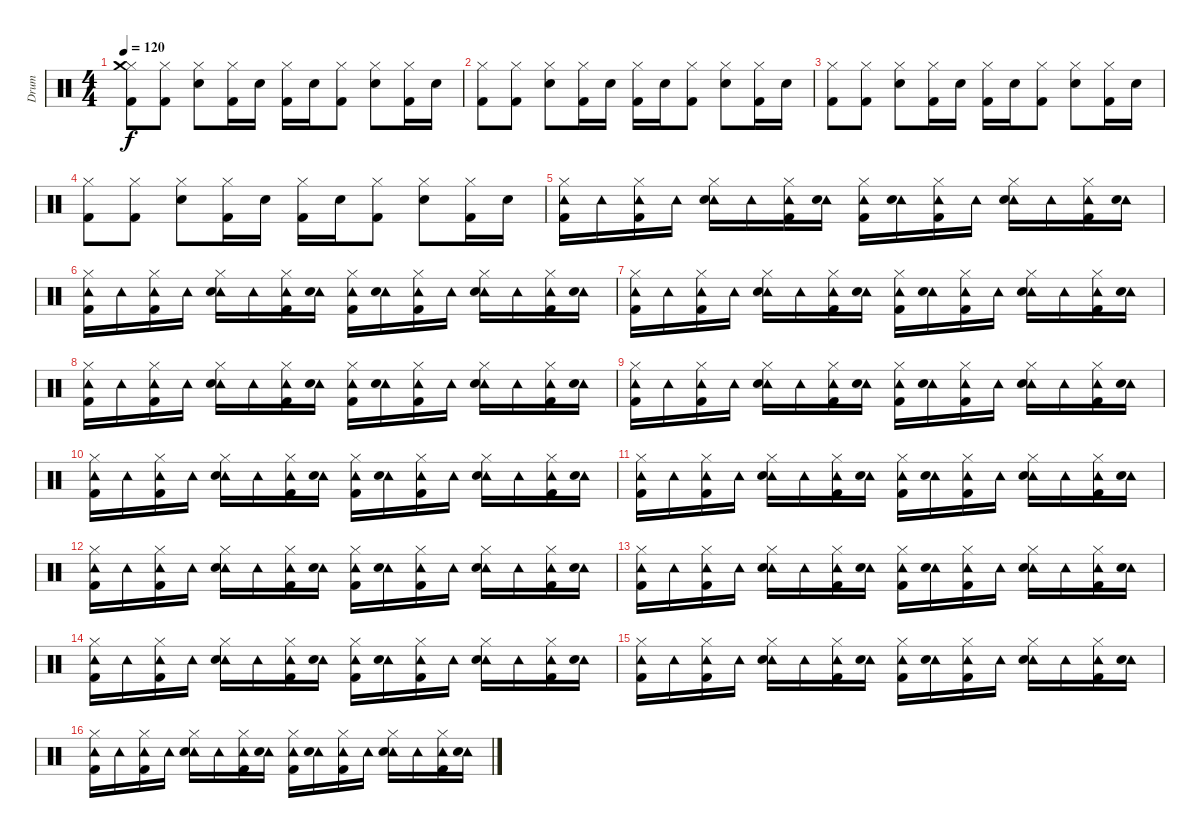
\track ("Drum" "Drum") {instrument percussion}
\staff {score}
\articulation defaults
\ts (4 4)
\tempo 120
\clef neutral
\ks c
("Hi-Hat (closed)" "Crash medium (hit)" "Kick (hit) 2").8{dy f} ("Hi-Hat (closed)" "Kick (hit) 2").8 ("Hi-Hat (closed)" "Electric Snare (hit)").8 ("Hi-Hat (closed)" "Kick (hit) 2").16 "Electric Snare (hit)".16 ("Hi-Hat (closed)" "Kick (hit) 2").16 "Electric Snare (hit)".16 ("Hi-Hat (closed)" "Kick (hit) 2").8 ("Hi-Hat (closed)" "Electric Snare (hit)").8 ("Hi-Hat (closed)" "Kick (hit) 2").16 "Electric Snare (hit)".16 |
("Hi-Hat (closed)" "Kick (hit) 2").8 ("Hi-Hat (closed)" "Kick (hit) 2").8 ("Hi-Hat (closed)" "Electric Snare (hit)").8 ("Hi-Hat (closed)" "Kick (hit) 2").16 "Electric Snare (hit)".16 ("Hi-Hat (closed)" "Kick (hit) 2").16 "Electric Snare (hit)".16 ("Hi-Hat (closed)" "Kick (hit) 2").8 ("Hi-Hat (closed)" "Electric Snare (hit)").8 ("Hi-Hat (closed)" "Kick (hit) 2").16 "Electric Snare (hit)".16 |
("Hi-Hat (closed)" "Kick (hit) 2").8 ("Hi-Hat (closed)" "Kick (hit) 2").8 ("Hi-Hat (closed)" "Electric Snare (hit)").8 ("Hi-Hat (closed)" "Kick (hit) 2").16 "Electric Snare (hit)".16 ("Hi-Hat (closed)" "Kick (hit) 2").16 "Electric Snare (hit)".16 ("Hi-Hat (closed)" "Kick (hit) 2").8 ("Hi-Hat (closed)" "Electric Snare (hit)").8 ("Hi-Hat (closed)" "Kick (hit) 2").16 "Electric Snare (hit)".16 |
("Hi-Hat (closed)" "Kick (hit) 2").8 ("Hi-Hat (closed)" "Kick (hit) 2").8 ("Hi-Hat (closed)" "Electric Snare (hit)").8 ("Hi-Hat (closed)" "Kick (hit) 2").16 "Electric Snare (hit)".16 ("Hi-Hat (closed)" "Kick (hit) 2").16 "Electric Snare (hit)".16 ("Hi-Hat (closed)" "Kick (hit) 2").8 ("Hi-Hat (closed)" "Electric Snare (hit)").8 ("Hi-Hat (closed)" "Kick (hit) 2").16 "Electric Snare (hit)".16 |
("Hi-Hat (closed)" "Tambourine (hit)" "Kick (hit) 2").16 "Tambourine (hit)".16 ("Hi-Hat (closed)" "Tambourine (hit)" "Kick (hit) 2").16 "Tambourine (hit)".16 ("Hi-Hat (closed)" "Tambourine (hit)" "Electric Snare (hit)").16 "Tambourine (hit)".16 ("Hi-Hat (closed)" "Tambourine (hit)" "Kick (hit) 2").16 ("Tambourine (hit)" "Electric Snare (hit)").16 ("Hi-Hat (closed)" "Tambourine (hit)" "Kick (hit) 2").16 ("Tambourine (hit)" "Electric Snare (hit)").16 ("Hi-Hat (closed)" "Tambourine (hit)" "Kick (hit) 2").16 "Tambourine (hit)".16 ("Hi-Hat (closed)" "Tambourine (hit)" "Electric Snare (hit)").16 "Tambourine (hit)".16 ("Hi-Hat (closed)" "Tambourine (hit)" "Kick (hit) 2").16 ("Tambourine (hit)" "Electric Snare (hit)").16 |
("Hi-Hat (closed)" "Tambourine (hit)" "Kick (hit) 2").16 "Tambourine (hit)".16 ("Hi-Hat (closed)" "Tambourine (hit)" "Kick (hit) 2").16 "Tambourine (hit)".16 ("Hi-Hat (closed)" "Tambourine (hit)" "Electric Snare (hit)").16 "Tambourine (hit)".16 ("Hi-Hat (closed)" "Tambourine (hit)" "Kick (hit) 2").16 ("Tambourine (hit)" "Electric Snare (hit)").16 ("Hi-Hat (closed)" "Tambourine (hit)" "Kick (hit) 2").16 ("Tambourine (hit)" "Electric Snare (hit)").16 ("Hi-Hat (closed)" "Tambourine (hit)" "Kick (hit) 2").16 "Tambourine (hit)".16 ("Hi-Hat (closed)" "Tambourine (hit)" "Electric Snare (hit)").16 "Tambourine (hit)".16 ("Hi-Hat (closed)" "Tambourine (hit)" "Kick (hit) 2").16 ("Tambourine (hit)" "Electric Snare (hit)").16 |
("Hi-Hat (closed)" "Tambourine (hit)" "Kick (hit) 2").16 "Tambourine (hit)".16 ("Hi-Hat (closed)" "Tambourine (hit)" "Kick (hit) 2").16 "Tambourine (hit)".16 ("Hi-Hat (closed)" "Tambourine (hit)" "Electric Snare (hit)").16 "Tambourine (hit)".16 ("Hi-Hat (closed)" "Tambourine (hit)" "Kick (hit) 2").16 ("Tambourine (hit)" "Electric Snare (hit)").16 ("Hi-Hat (closed)" "Tambourine (hit)" "Kick (hit) 2").16 ("Tambourine (hit)" "Electric Snare (hit)").16 ("Hi-Hat (closed)" "Tambourine (hit)" "Kick (hit) 2").16 "Tambourine (hit)".16 ("Hi-Hat (closed)" "Tambourine (hit)" "Electric Snare (hit)").16 "Tambourine (hit)".16 ("Hi-Hat (closed)" "Tambourine (hit)" "Kick (hit) 2").16 ("Tambourine (hit)" "Electric Snare (hit)").16 |
("Hi-Hat (closed)" "Tambourine (hit)" "Kick (hit) 2").16 "Tambourine (hit)".16 ("Hi-Hat (closed)" "Tambourine (hit)" "Kick (hit) 2").16 "Tambourine (hit)".16 ("Hi-Hat (closed)" "Tambourine (hit)" "Electric Snare (hit)").16 "Tambourine (hit)".16 ("Hi-Hat (closed)" "Tambourine (hit)" "Kick (hit) 2").16 ("Tambourine (hit)" "Electric Snare (hit)").16 ("Hi-Hat (closed)" "Tambourine (hit)" "Kick (hit) 2").16 ("Tambourine (hit)" "Electric Snare (hit)").16 ("Hi-Hat (closed)" "Tambourine (hit)" "Kick (hit) 2").16 "Tambourine (hit)".16 ("Hi-Hat (closed)" "Tambourine (hit)" "Electric Snare (hit)").16 "Tambourine (hit)".16 ("Hi-Hat (closed)" "Tambourine (hit)" "Kick (hit) 2").16 ("Tambourine (hit)" "Electric Snare (hit)").16 |
("Hi-Hat (closed)" "Tambourine (hit)" "Kick (hit) 2").16 "Tambourine (hit)".16 ("Hi-Hat (closed)" "Tambourine (hit)" "Kick (hit) 2").16 "Tambourine (hit)".16 ("Hi-Hat (closed)" "Tambourine (hit)" "Electric Snare (hit)").16 "Tambourine (hit)".16 ("Hi-Hat (closed)" "Tambourine (hit)" "Kick (hit) 2").16 ("Tambourine (hit)" "Electric Snare (hit)").16 ("Hi-Hat (closed)" "Tambourine (hit)" "Kick (hit) 2").16 ("Tambourine (hit)" "Electric Snare (hit)").16 ("Hi-Hat (closed)" "Tambourine (hit)" "Kick (hit) 2").16 "Tambourine (hit)".16 ("Hi-Hat (closed)" "Tambourine (hit)" "Electric Snare (hit)").16 "Tambourine (hit)".16 ("Hi-Hat (closed)" "Tambourine (hit)" "Kick (hit) 2").16 ("Tambourine (hit)" "Electric Snare (hit)").16 |
("Hi-Hat (closed)" "Tambourine (hit)" "Kick (hit) 2").16 "Tambourine (hit)".16 ("Hi-Hat (closed)" "Tambourine (hit)" "Kick (hit) 2").16 "Tambourine (hit)".16 ("Hi-Hat (closed)" "Tambourine (hit)" "Electric Snare (hit)").16 "Tambourine (hit)".16 ("Hi-Hat (closed)" "Tambourine (hit)" "Kick (hit) 2").16 ("Tambourine (hit)" "Electric Snare (hit)").16 ("Hi-Hat (closed)" "Tambourine (hit)" "Kick (hit) 2").16 ("Tambourine (hit)" "Electric Snare (hit)").16 ("Hi-Hat (closed)" "Tambourine (hit)" "Kick (hit) 2").16 "Tambourine (hit)".16 ("Hi-Hat (closed)" "Tambourine (hit)" "Electric Snare (hit)").16 "Tambourine (hit)".16 ("Hi-Hat (closed)" "Tambourine (hit)" "Kick (hit) 2").16 ("Tambourine (hit)" "Electric Snare (hit)").16 |
("Hi-Hat (closed)" "Tambourine (hit)" "Kick (hit) 2").16 "Tambourine (hit)".16 ("Hi-Hat (closed)" "Tambourine (hit)" "Kick (hit) 2").16 "Tambourine (hit)".16 ("Hi-Hat (closed)" "Tambourine (hit)" "Electric Snare (hit)").16 "Tambourine (hit)".16 ("Hi-Hat (closed)" "Tambourine (hit)" "Kick (hit) 2").16 ("Tambourine (hit)" "Electric Snare (hit)").16 ("Hi-Hat (closed)" "Tambourine (hit)" "Kick (hit) 2").16 ("Tambourine (hit)" "Electric Snare (hit)").16 ("Hi-Hat (closed)" "Tambourine (hit)" "Kick (hit) 2").16 "Tambourine (hit)".16 ("Hi-Hat (closed)" "Tambourine (hit)" "Electric Snare (hit)").16 "Tambourine (hit)".16 ("Hi-Hat (closed)" "Tambourine (hit)" "Kick (hit) 2").16 ("Tambourine (hit)" "Electric Snare (hit)").16 |
("Hi-Hat (closed)" "Tambourine (hit)" "Kick (hit) 2").16 "Tambourine (hit)".16 ("Hi-Hat (closed)" "Tambourine (hit)" "Kick (hit) 2").16 "Tambourine (hit)".16 ("Hi-Hat (closed)" "Tambourine (hit)" "Electric Snare (hit)").16 "Tambourine (hit)".16 ("Hi-Hat (closed)" "Tambourine (hit)" "Kick (hit) 2").16 ("Tambourine (hit)" "Electric Snare (hit)").16 ("Hi-Hat (closed)" "Tambourine (hit)" "Kick (hit) 2").16 ("Tambourine (hit)" "Electric Snare (hit)").16 ("Hi-Hat (closed)" "Tambourine (hit)" "Kick (hit) 2").16 "Tambourine (hit)".16 ("Hi-Hat (closed)" "Tambourine (hit)" "Electric Snare (hit)").16 "Tambourine (hit)".16 ("Hi-Hat (closed)" "Tambourine (hit)" "Kick (hit) 2").16 ("Tambourine (hit)" "Electric Snare (hit)").16 |
("Hi-Hat (closed)" "Tambourine (hit)" "Kick (hit) 2").16 "Tambourine (hit)".16 ("Hi-Hat (closed)" "Tambourine (hit)" "Kick (hit) 2").16 "Tambourine (hit)".16 ("Hi-Hat (closed)" "Tambourine (hit)" "Electric Snare (hit)").16 "Tambourine (hit)".16 ("Hi-Hat (closed)" "Tambourine (hit)" "Kick (hit) 2").16 ("Tambourine (hit)" "Electric Snare (hit)").16 ("Hi-Hat (closed)" "Tambourine (hit)" "Kick (hit) 2").16 ("Tambourine (hit)" "Electric Snare (hit)").16 ("Hi-Hat (closed)" "Tambourine (hit)" "Kick (hit) 2").16 "Tambourine (hit)".16 ("Hi-Hat (closed)" "Tambourine (hit)" "Electric Snare (hit)").16 "Tambourine (hit)".16 ("Hi-Hat (closed)" "Tambourine (hit)" "Kick (hit) 2").16 ("Tambourine (hit)" "Electric Snare (hit)").16 |
("Hi-Hat (closed)" "Tambourine (hit)" "Kick (hit) 2").16 "Tambourine (hit)".16 ("Hi-Hat (closed)" "Tambourine (hit)" "Kick (hit) 2").16 "Tambourine (hit)".16 ("Hi-Hat (closed)" "Tambourine (hit)" "Electric Snare (hit)").16 "Tambourine (hit)".16 ("Hi-Hat (closed)" "Tambourine (hit)" "Kick (hit) 2").16 ("Tambourine (hit)" "Electric Snare (hit)").16 ("Hi-Hat (closed)" "Tambourine (hit)" "Kick (hit) 2").16 ("Tambourine (hit)" "Electric Snare (hit)").16 ("Hi-Hat (closed)" "Tambourine (hit)" "Kick (hit) 2").16 "Tambourine (hit)".16 ("Hi-Hat (closed)" "Tambourine (hit)" "Electric Snare (hit)").16 "Tambourine (hit)".16 ("Hi-Hat (closed)" "Tambourine (hit)" "Kick (hit) 2").16 ("Tambourine (hit)" "Electric Snare (hit)").16 |
("Hi-Hat (closed)" "Tambourine (hit)" "Kick (hit) 2").16 "Tambourine (hit)".16 ("Hi-Hat (closed)" "Tambourine (hit)" "Kick (hit) 2").16 "Tambourine (hit)".16 ("Hi-Hat (closed)" "Tambourine (hit)" "Electric Snare (hit)").16 "Tambourine (hit)".16 ("Hi-Hat (closed)" "Tambourine (hit)" "Kick (hit) 2").16 ("Tambourine (hit)" "Electric Snare (hit)").16 ("Hi-Hat (closed)" "Tambourine (hit)" "Kick (hit) 2").16 ("Tambourine (hit)" "Electric Snare (hit)").16 ("Hi-Hat (closed)" "Tambourine (hit)" "Kick (hit) 2").16 "Tambourine (hit)".16 ("Hi-Hat (closed)" "Tambourine (hit)" "Electric Snare (hit)").16 "Tambourine (hit)".16 ("Hi-Hat (closed)" "Tambourine (hit)" "Kick (hit) 2").16 ("Tambourine (hit)" "Electric Snare (hit)").16 |
("Hi-Hat (closed)" "Tambourine (hit)" "Kick (hit) 2").16 "Tambourine (hit)".16 ("Hi-Hat (closed)" "Tambourine (hit)" "Kick (hit) 2").16 "Tambourine (hit)".16 ("Hi-Hat (closed)" "Tambourine (hit)" "Electric Snare (hit)").16 "Tambourine (hit)".16 ("Hi-Hat (closed)" "Tambourine (hit)" "Kick (hit) 2").16 ("Tambourine (hit)" "Electric Snare (hit)").16 ("Hi-Hat (closed)" "Tambourine (hit)" "Kick (hit) 2").16 ("Tambourine (hit)" "Electric Snare (hit)").16 ("Hi-Hat (closed)" "Tambourine (hit)" "Kick (hit) 2").16 "Tambourine (hit)".16 ("Hi-Hat (closed)" "Tambourine (hit)" "Electric Snare (hit)").16 "Tambourine (hit)".16 ("Hi-Hat (closed)" "Tambourine (hit)" "Kick (hit) 2").16 ("Tambourine (hit)" "Electric Snare (hit)").16
